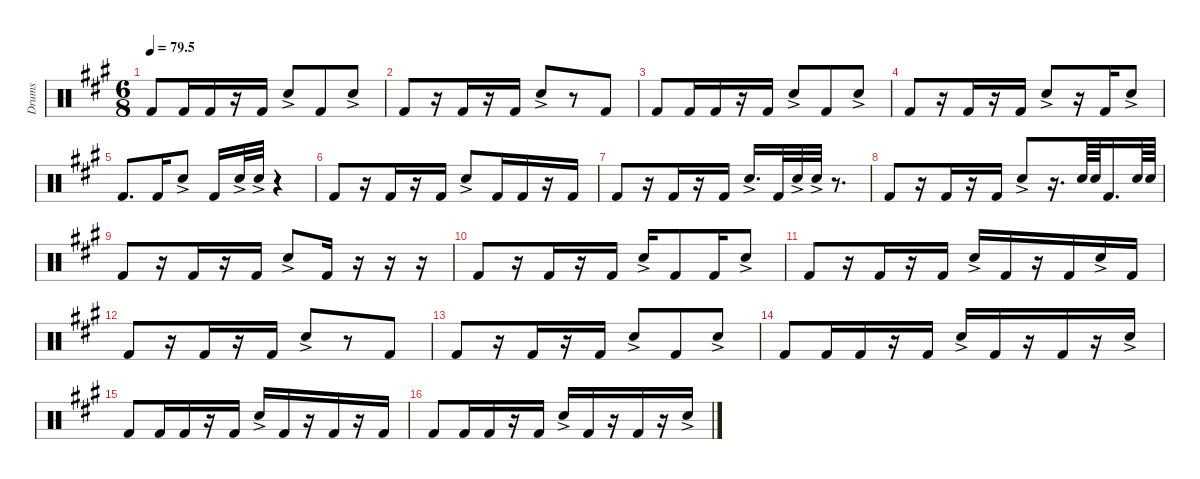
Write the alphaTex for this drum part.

\defaultSystemsLayout 4
\hideDynamics
\bracketExtendMode nobrackets
\otherSystemsTrackNameOrientation horizontal
\track ("F&S" "Drums") {instrument percussion}
\staff {score}
\articulation defaults
\ts (6 8)
\tempo
79.5
\accidentals auto
\clef neutral
\ottava regular
\simile none
\scale
0.333333
\ks a "Kick (hit) 2"{acc forcenatural}.8{dy f} "Kick (hit) 2"{acc forcenatural}.16 "Kick (hit) 2"{acc forcenatural}.16
r.16 "Kick (hit) 2"{acc forcenatural}.16 "Snare (hit) 2"{ac acc forcenatural}.8 "Kick (hit) 2"{acc forcenatural}.8 "Snare (hit) 2"{ac acc forcenatural}.8 |
\scale
0.333333 "Kick (hit) 2"{acc forcenatural}.8 r.16 "Kick (hit) 2"{acc forcenatural}.16 r.16 "Kick (hit) 2"{acc forcenatural}.16 "Snare (hit) 2"{ac acc forcenatural}.8 r.8 "Kick (hit) 2"{acc forcenatural}.8 |
\scale
0.333333 "Kick (hit) 2"{acc forcenatural}.8 "Kick (hit) 2"{acc forcenatural}.16 "Kick (hit) 2"{acc forcenatural}.16 r.16 "Kick (hit) 2"{acc forcenatural}.16 "Snare (hit) 2"{ac acc forcenatural}.8 "Kick (hit) 2"{acc forcenatural}.8 "Snare (hit) 2"{ac acc forcenatural}.8 |
\scale
0.333333 "Kick (hit) 2"{acc forcenatural}.8 r.16 "Kick (hit) 2"{acc forcenatural}.16 r.16 "Kick (hit) 2"{acc forcenatural}.16 "Snare (hit) 2"{ac acc forcenatural}.8 r.16 "Kick (hit) 2"{acc forcenatural}.16 "Snare (hit) 2"{ac acc forcenatural}.8 |
\scale
0.333333 "Kick (hit) 2"{acc forcenatural}.8{d} "Kick (hit) 2"{acc forcenatural}.16 "Snare (hit) 2"{ac acc forcenatural}.8 "Kick (hit) 2"{acc forcenatural}.16 "Snare (hit) 2"{ac acc forcenatural}.32 "Snare (hit) 2"{ac acc forcenatural}.32 r.4 |
\scale
0.333333 "Kick (hit) 2"{acc forcenatural}.8 r.16 "Kick (hit) 2"{acc forcenatural}.16 r.16 "Kick (hit) 2"{acc forcenatural}.16 "Snare (hit) 2"{ac acc forcenatural}.8 "Kick (hit) 2"{acc forcenatural}.16 "Kick (hit) 2"{acc forcenatural}.16 r.16 "Kick (hit) 2"{acc forcenatural}.16 |
\scale
0.333333 "Kick (hit) 2"{acc forcenatural}.8 r.16 "Kick (hit) 2"{acc forcenatural}.16 r.16 "Kick (hit) 2"{acc forcenatural}.16 "Snare (hit) 2"{ac acc forcenatural}.16{d} "Kick (hit) 2"{acc forcenatural}.32 "Snare (hit) 2"{ac acc forcenatural}.32 "Snare (hit) 2"{ac acc forcenatural}.32 r.8{d} |
\scale
0.333333 "Kick (hit) 2"{acc forcenatural}.8 r.16 "Kick (hit) 2"{acc forcenatural}.16 r.16 "Kick (hit) 2"{acc forcenatural}.16 "Snare (hit) 2"{ac acc forcenatural}.8 r.16{d} "Snare (hit) 2"{acc forcenatural}.64 "Snare (hit) 2"{acc forcenatural}.64 "Kick (hit) 2"{acc forcenatural}.16{d} "Snare (hit) 2"{acc forcenatural}.64 "Snare (hit) 2"{acc forcenatural}.64 |
\scale
0.333333 "Kick (hit) 2"{acc forcenatural}.8 r.16 "Kick (hit) 2"{acc forcenatural}.16 r.16 "Kick (hit) 2"{acc forcenatural}.16 "Snare (hit) 2"{ac acc forcenatural}.8 "Kick (hit) 2"{acc forcenatural}.16 r.16 r.16 r.16 |
\scale
0.333333 "Kick (hit) 2"{acc forcenatural}.8 r.16 "Kick (hit) 2"{acc forcenatural}.16 r.16 "Kick (hit) 2"{acc forcenatural}.16 "Snare (hit) 2"{ac acc forcenatural}.16 "Kick (hit) 2"{acc forcenatural}.8 "Kick (hit) 2"{acc forcenatural}.16 "Snare (hit) 2"{ac acc forcenatural}.8 |
\scale
0.333333 "Kick (hit) 2"{acc forcenatural}.8 r.16 "Kick (hit) 2"{acc forcenatural}.16 r.16 "Kick (hit) 2"{acc forcenatural}.16 "Snare (hit) 2"{ac acc forcenatural}.16 "Kick (hit) 2"{acc forcenatural}.16 r.16 "Kick (hit) 2"{acc forcenatural}.16 "Snare (hit) 2"{ac acc forcenatural}.16 "Kick (hit) 2"{acc forcenatural}.16 |
\scale
0.333333 "Kick (hit) 2"{acc forcenatural}.8 r.16 "Kick (hit) 2"{acc forcenatural}.16 r.16 "Kick (hit) 2"{acc forcenatural}.16 "Snare (hit) 2"{ac acc forcenatural}.8 r.8 "Kick (hit) 2"{acc forcenatural}.8 |
\scale
0.333333 "Kick (hit) 2"{acc forcenatural}.8 r.16 "Kick (hit) 2"{acc forcenatural}.16 r.16 "Kick (hit) 2"{acc forcenatural}.16 "Snare (hit) 2"{ac acc forcenatural}.8 "Kick (hit) 2"{acc forcenatural}.8 "Snare (hit) 2"{ac acc forcenatural}.8 |
\scale
0.333333 "Kick (hit) 2"{acc forcenatural}.8 "Kick (hit) 2"{acc forcenatural}.16 "Kick (hit) 2"{acc forcenatural}.16 r.16 "Kick (hit) 2"{acc forcenatural}.16 "Snare (hit) 2"{ac acc forcenatural}.16 "Kick (hit) 2"{acc forcenatural}.16 r.16 "Kick (hit) 2"{acc forcenatural}.16 r.16 "Snare (hit) 2"{ac acc forcenatural}.16 |
\scale
0.333333 "Kick (hit) 2"{acc forcenatural}.8 "Kick (hit) 2"{acc forcenatural}.16 "Kick (hit) 2"{acc forcenatural}.16 r.16 "Kick (hit) 2"{acc forcenatural}.16 "Snare (hit) 2"{ac acc forcenatural}.16 "Kick (hit) 2"{acc forcenatural}.16 r.16 "Kick (hit) 2"{acc forcenatural}.16 r.16 "Kick (hit) 2"{acc forcenatural}.16 |
\scale
0.333333 "Kick (hit) 2"{acc forcenatural}.8 "Kick (hit) 2"{acc forcenatural}.16 "Kick (hit) 2"{acc forcenatural}.16 r.16 "Kick (hit) 2"{acc forcenatural}.16 "Snare (hit) 2"{ac acc forcenatural}.16 "Kick (hit) 2"{acc forcenatural}.16 r.16 "Kick (hit) 2"{acc forcenatural}.16 r.16 "Snare (hit) 2"{ac acc forcenatural}.16
